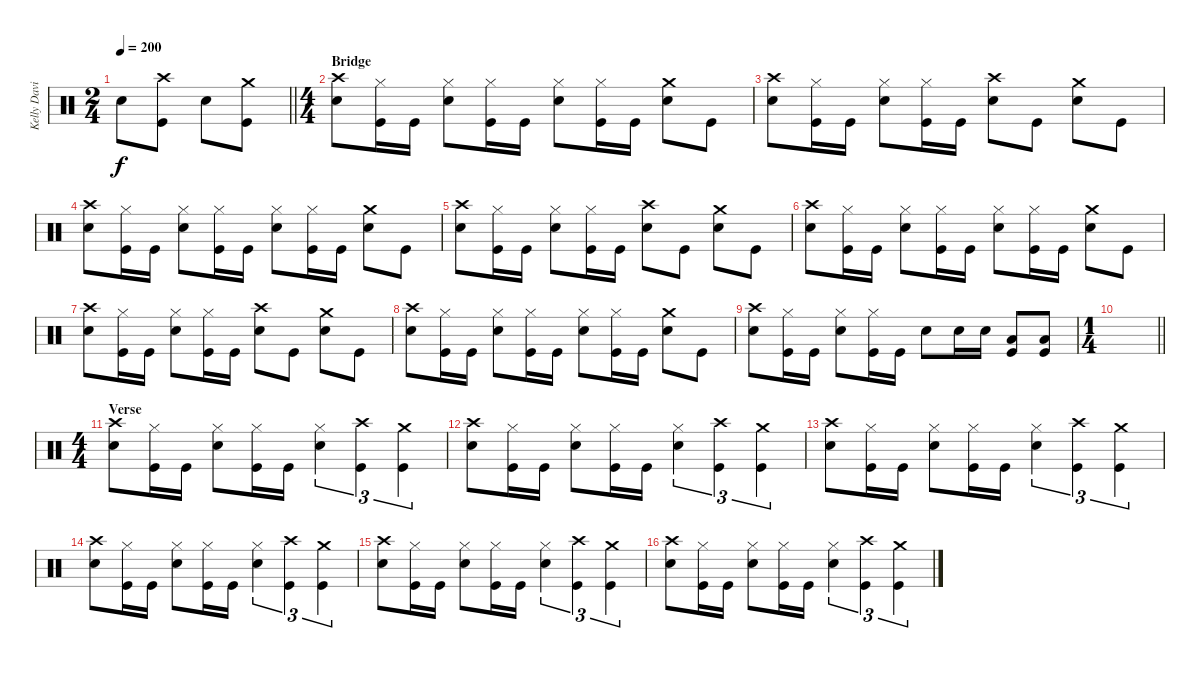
\track ("Kelly David Smith" "Kelly Davi") {instrument percussion}
\staff {score}
\articulation defaults
\ts (2 4)
\tempo 200
\clef neutral
\barLineRight lightlight
\ks c "Snare (hit) 2".8{dy f}
("Crash high (hit)" "Kick (hit)").8 "Snare (hit) 2".8 ("Crash medium (hit)" "Kick (hit)").8 |
\ts (4 4)
\section ("" "Bridge")
("Crash high (hit)" "Snare (hit) 2").8 ("Hi-Hat (closed)" "Kick (hit)").16 "Kick (hit)".16 ("Hi-Hat (closed)" "Snare (hit) 2").8 ("Hi-Hat (closed)" "Kick (hit)").16 "Kick (hit)".16 ("Hi-Hat (closed)" "Snare (hit) 2").8 ("Hi-Hat (closed)" "Kick (hit)").16 "Kick (hit)".16 ("Crash medium (hit)" "Snare (hit) 2").8 "Kick (hit)".8 |
("Crash high (hit)" "Snare (hit) 2").8 ("Hi-Hat (closed)" "Kick (hit)").16 "Kick (hit)".16 ("Hi-Hat (closed)" "Snare (hit) 2").8 ("Hi-Hat (closed)" "Kick (hit)").16 "Kick (hit)".16 ("Crash high (hit)" "Snare (hit) 2").8 "Kick (hit)".8 ("Crash medium (hit)" "Snare (hit) 2").8 "Kick (hit)".8 |
("Crash high (hit)" "Snare (hit) 2").8 ("Hi-Hat (closed)" "Kick (hit)").16 "Kick (hit)".16 ("Hi-Hat (closed)" "Snare (hit) 2").8 ("Hi-Hat (closed)" "Kick (hit)").16 "Kick (hit)".16 ("Hi-Hat (closed)" "Snare (hit) 2").8 ("Hi-Hat (closed)" "Kick (hit)").16 "Kick (hit)".16 ("Crash medium (hit)" "Snare (hit) 2").8 "Kick (hit)".8 |
("Crash high (hit)" "Snare (hit) 2").8 ("Hi-Hat (closed)" "Kick (hit)").16 "Kick (hit)".16 ("Hi-Hat (closed)" "Snare (hit) 2").8 ("Hi-Hat (closed)" "Kick (hit)").16 "Kick (hit)".16 ("Crash high (hit)" "Snare (hit) 2").8 "Kick (hit)".8 ("Crash medium (hit)" "Snare (hit) 2").8 "Kick (hit)".8 |
("Crash high (hit)" "Snare (hit) 2").8 ("Hi-Hat (closed)" "Kick (hit)").16 "Kick (hit)".16 ("Hi-Hat (closed)" "Snare (hit) 2").8 ("Hi-Hat (closed)" "Kick (hit)").16 "Kick (hit)".16 ("Hi-Hat (closed)" "Snare (hit) 2").8 ("Hi-Hat (closed)" "Kick (hit)").16 "Kick (hit)".16 ("Crash medium (hit)" "Snare (hit) 2").8 "Kick (hit)".8 |
("Crash high (hit)" "Snare (hit) 2").8 ("Hi-Hat (closed)" "Kick (hit)").16 "Kick (hit)".16 ("Hi-Hat (closed)" "Snare (hit) 2").8 ("Hi-Hat (closed)" "Kick (hit)").16 "Kick (hit)".16 ("Crash high (hit)" "Snare (hit) 2").8 "Kick (hit)".8 ("Crash medium (hit)" "Snare (hit) 2").8 "Kick (hit)".8 |
("Crash high (hit)" "Snare (hit) 2").8 ("Hi-Hat (closed)" "Kick (hit)").16 "Kick (hit)".16 ("Hi-Hat (closed)" "Snare (hit) 2").8 ("Hi-Hat (closed)" "Kick (hit)").16 "Kick (hit)".16 ("Hi-Hat (closed)" "Snare (hit) 2").8 ("Hi-Hat (closed)" "Kick (hit)").16 "Kick (hit)".16 ("Crash medium (hit)" "Snare (hit) 2").8 "Kick (hit)".8 |
("Crash high (hit)" "Snare (hit) 2").8 ("Hi-Hat (closed)" "Kick (hit)").16 "Kick (hit)".16 ("Hi-Hat (closed)" "Snare (hit) 2").8 ("Hi-Hat (closed)" "Kick (hit)").16 "Kick (hit)".16 "Snare (hit) 2".8 "Snare (hit) 2".16 "Snare (hit) 2".16 ("Low Floor Tom (hit)" "Kick (hit)").8 ("Low Floor Tom (hit)" "Kick (hit)").8 |
\ts (1 4)
\barLineRight lightlight
|
\ts (4 4)
\section ("" "Verse")
("Crash high (hit)" "Snare (hit) 2").8 ("Hi-Hat (closed)" "Kick (hit)").16 "Kick (hit)".16 ("Hi-Hat (closed)" "Snare (hit) 2").8 ("Hi-Hat (closed)" "Kick (hit)").16 "Kick (hit)".16 ("Hi-Hat (closed)" "Snare (hit) 2").4{tu (3 2)} ("Crash high (hit)" "Kick (hit)").4{tu (3 2)} ("Crash medium (hit)" "Kick (hit)").4{tu (3 2)} |
("Crash high (hit)" "Snare (hit) 2").8 ("Hi-Hat (closed)" "Kick (hit)").16 "Kick (hit)".16 ("Hi-Hat (closed)" "Snare (hit) 2").8 ("Hi-Hat (closed)" "Kick (hit)").16 "Kick (hit)".16 ("Hi-Hat (closed)" "Snare (hit) 2").4{tu (3 2)} ("Crash high (hit)" "Kick (hit)").4{tu (3 2)} ("Crash medium (hit)" "Kick (hit)").4{tu (3 2)} |
("Crash high (hit)" "Snare (hit) 2").8 ("Hi-Hat (closed)" "Kick (hit)").16 "Kick (hit)".16 ("Hi-Hat (closed)" "Snare (hit) 2").8 ("Hi-Hat (closed)" "Kick (hit)").16 "Kick (hit)".16 ("Hi-Hat (closed)" "Snare (hit) 2").4{tu (3 2)} ("Crash high (hit)" "Kick (hit)").4{tu (3 2)} ("Crash medium (hit)" "Kick (hit)").4{tu (3 2)} |
("Crash high (hit)" "Snare (hit) 2").8 ("Hi-Hat (closed)" "Kick (hit)").16 "Kick (hit)".16 ("Hi-Hat (closed)" "Snare (hit) 2").8 ("Hi-Hat (closed)" "Kick (hit)").16 "Kick (hit)".16 ("Hi-Hat (closed)" "Snare (hit) 2").4{tu (3 2)} ("Crash high (hit)" "Kick (hit)").4{tu (3 2)} ("Crash medium (hit)" "Kick (hit)").4{tu (3 2)} |
("Crash high (hit)" "Snare (hit) 2").8 ("Hi-Hat (closed)" "Kick (hit)").16 "Kick (hit)".16 ("Hi-Hat (closed)" "Snare (hit) 2").8 ("Hi-Hat (closed)" "Kick (hit)").16 "Kick (hit)".16 ("Hi-Hat (closed)" "Snare (hit) 2").4{tu (3 2)} ("Crash high (hit)" "Kick (hit)").4{tu (3 2)} ("Crash medium (hit)" "Kick (hit)").4{tu (3 2)} |
("Crash high (hit)" "Snare (hit) 2").8 ("Hi-Hat (closed)" "Kick (hit)").16 "Kick (hit)".16 ("Hi-Hat (closed)" "Snare (hit) 2").8 ("Hi-Hat (closed)" "Kick (hit)").16 "Kick (hit)".16 ("Hi-Hat (closed)" "Snare (hit) 2").4{tu (3 2)} ("Crash high (hit)" "Kick (hit)").4{tu (3 2)} ("Crash medium (hit)" "Kick (hit)").4{tu (3 2)}
